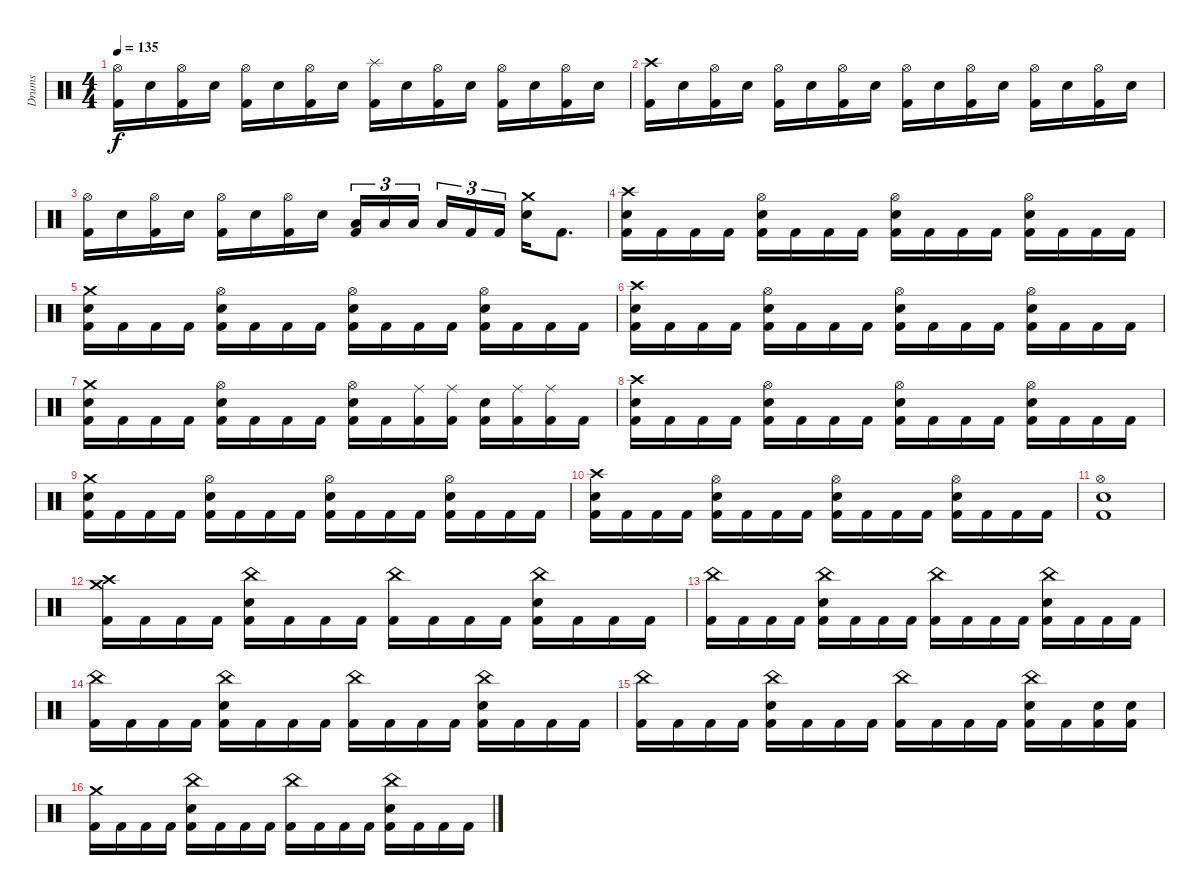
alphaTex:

\track ("Drums" "Drums") {instrument percussion}
\staff {score}
\articulation defaults
\ts (4 4)
\tempo 135
\clef neutral
\ks c
("Hi-Hat (open)" "Kick (hit) 2").16{dy f} "Electric Snare (hit)".16 ("Hi-Hat (open)" "Kick (hit) 2").16 "Electric Snare (hit)".16 ("Hi-Hat (open)" "Kick (hit) 2").16 "Electric Snare (hit)".16 ("Hi-Hat (open)" "Kick (hit) 2").16 "Electric Snare (hit)".16 ("Splash (hit)" "Kick (hit) 2").16 "Electric Snare (hit)".16 ("Hi-Hat (open)" "Kick (hit) 2").16 "Electric Snare (hit)".16 ("Hi-Hat (open)" "Kick (hit) 2").16 "Electric Snare (hit)".16 ("Hi-Hat (open)" "Kick (hit) 2").16 "Electric Snare (hit)".16 |
("Crash high (hit)" "Kick (hit) 2").16 "Electric Snare (hit)".16 ("Hi-Hat (open)" "Kick (hit) 2").16 "Electric Snare (hit)".16 ("Hi-Hat (open)" "Kick (hit) 2").16 "Electric Snare (hit)".16 ("Hi-Hat (open)" "Kick (hit) 2").16 "Electric Snare (hit)".16 ("Hi-Hat (open)" "Kick (hit) 2").16 "Electric Snare (hit)".16 ("Hi-Hat (open)" "Kick (hit) 2").16 "Electric Snare (hit)".16 ("Hi-Hat (open)" "Kick (hit) 2").16 "Electric Snare (hit)".16 ("Hi-Hat (open)" "Kick (hit) 2").16 "Electric Snare (hit)".16 |
("Hi-Hat (open)" "Kick (hit) 2").16 "Electric Snare (hit)".16 ("Hi-Hat (open)" "Kick (hit) 2").16 "Electric Snare (hit)".16 ("Hi-Hat (open)" "Kick (hit) 2").16 "Electric Snare (hit)".16 ("Hi-Hat (open)" "Kick (hit) 2").16 "Electric Snare (hit)".16 ("Low Tom (hit)" "Kick (hit) 2").16{tu (3 2)} "Low Tom (hit)".16{tu (3 2)} "Low Tom (hit)".16{tu (3 2) beam splitsecondary} "Low Tom (hit)".16{tu (3 2)} "Kick (hit) 2".16{tu (3 2)} "Kick (hit) 2".16{tu (3 2)} ("Crash medium (hit)" "Electric Snare (hit)").16 "Kick (hit) 2".8{d} |
("Crash high (hit)" "Electric Snare (hit)" "Kick (hit) 2").16 "Kick (hit) 2".16 "Kick (hit) 2".16 "Kick (hit) 2".16 ("Hi-Hat (open)" "Electric Snare (hit)" "Kick (hit) 2").16 "Kick (hit) 2".16 "Kick (hit) 2".16 "Kick (hit) 2".16 ("Hi-Hat (open)" "Electric Snare (hit)" "Kick (hit) 2").16 "Kick (hit) 2".16 "Kick (hit) 2".16 "Kick (hit) 2".16 ("Hi-Hat (open)" "Electric Snare (hit)" "Kick (hit) 2").16 "Kick (hit) 2".16 "Kick (hit) 2".16 "Kick (hit) 2".16 |
("Crash medium (hit)" "Electric Snare (hit)" "Kick (hit) 2").16 "Kick (hit) 2".16 "Kick (hit) 2".16 "Kick (hit) 2".16 ("Hi-Hat (open)" "Electric Snare (hit)" "Kick (hit) 2").16 "Kick (hit) 2".16 "Kick (hit) 2".16 "Kick (hit) 2".16 ("Hi-Hat (open)" "Electric Snare (hit)" "Kick (hit) 2").16 "Kick (hit) 2".16 "Kick (hit) 2".16 "Kick (hit) 2".16 ("Hi-Hat (open)" "Electric Snare (hit)" "Kick (hit) 2").16 "Kick (hit) 2".16 "Kick (hit) 2".16 "Kick (hit) 2".16 |
("Crash high (hit)" "Electric Snare (hit)" "Kick (hit) 2").16 "Kick (hit) 2".16 "Kick (hit) 2".16 "Kick (hit) 2".16 ("Hi-Hat (open)" "Electric Snare (hit)" "Kick (hit) 2").16 "Kick (hit) 2".16 "Kick (hit) 2".16 "Kick (hit) 2".16 ("Hi-Hat (open)" "Electric Snare (hit)" "Kick (hit) 2").16 "Kick (hit) 2".16 "Kick (hit) 2".16 "Kick (hit) 2".16 ("Hi-Hat (open)" "Electric Snare (hit)" "Kick (hit) 2").16 "Kick (hit) 2".16 "Kick (hit) 2".16 "Kick (hit) 2".16 |
("Crash medium (hit)" "Electric Snare (hit)" "Kick (hit) 2").16 "Kick (hit) 2".16 "Kick (hit) 2".16 "Kick (hit) 2".16 ("Hi-Hat (open)" "Electric Snare (hit)" "Kick (hit) 2").16 "Kick (hit) 2".16 "Kick (hit) 2".16 "Kick (hit) 2".16 ("Hi-Hat (open)" "Electric Snare (hit)" "Kick (hit) 2").16 "Kick (hit) 2".16 ("Ride (middle)" "Kick (hit) 2").16 ("Ride (middle)" "Kick (hit) 2").16 ("Electric Snare (hit)" "Kick (hit) 2").16 ("Ride (middle)" "Kick (hit) 2").16 ("Ride (middle)" "Kick (hit) 2").16 "Kick (hit) 2".16 |
("Crash high (hit)" "Electric Snare (hit)" "Kick (hit) 2").16 "Kick (hit) 2".16 "Kick (hit) 2".16 "Kick (hit) 2".16 ("Hi-Hat (open)" "Electric Snare (hit)" "Kick (hit) 2").16 "Kick (hit) 2".16 "Kick (hit) 2".16 "Kick (hit) 2".16 ("Hi-Hat (open)" "Electric Snare (hit)" "Kick (hit) 2").16 "Kick (hit) 2".16 "Kick (hit) 2".16 "Kick (hit) 2".16 ("Hi-Hat (open)" "Electric Snare (hit)" "Kick (hit) 2").16 "Kick (hit) 2".16 "Kick (hit) 2".16 "Kick (hit) 2".16 |
("Crash medium (hit)" "Electric Snare (hit)" "Kick (hit) 2").16 "Kick (hit) 2".16 "Kick (hit) 2".16 "Kick (hit) 2".16 ("Hi-Hat (open)" "Electric Snare (hit)" "Kick (hit) 2").16 "Kick (hit) 2".16 "Kick (hit) 2".16 "Kick (hit) 2".16 ("Hi-Hat (open)" "Electric Snare (hit)" "Kick (hit) 2").16 "Kick (hit) 2".16 "Kick (hit) 2".16 "Kick (hit) 2".16 ("Hi-Hat (open)" "Electric Snare (hit)" "Kick (hit) 2").16 "Kick (hit) 2".16 "Kick (hit) 2".16 "Kick (hit) 2".16 |
("Crash high (hit)" "Electric Snare (hit)" "Kick (hit) 2").16 "Kick (hit) 2".16 "Kick (hit) 2".16 "Kick (hit) 2".16 ("Hi-Hat (open)" "Electric Snare (hit)" "Kick (hit) 2").16 "Kick (hit) 2".16 "Kick (hit) 2".16 "Kick (hit) 2".16 ("Hi-Hat (open)" "Electric Snare (hit)" "Kick (hit) 2").16 "Kick (hit) 2".16 "Kick (hit) 2".16 "Kick (hit) 2".16 ("Hi-Hat (open)" "Electric Snare (hit)" "Kick (hit) 2").16 "Kick (hit) 2".16 "Kick (hit) 2".16 "Kick (hit) 2".16 |
("Hi-Hat (open)" "Electric Snare (hit)" "Kick (hit) 2").1 |
("Crash high (hit)" "Crash medium (hit)" "Kick (hit) 2").16 "Kick (hit) 2".16 "Kick (hit) 2".16 "Kick (hit) 2".16 ("China (hit)" "Electric Snare (hit)" "Kick (hit) 2").16 "Kick (hit) 2".16 "Kick (hit) 2".16 "Kick (hit) 2".16 ("China (hit)" "Kick (hit) 2").16 "Kick (hit) 2".16 "Kick (hit) 2".16 "Kick (hit) 2".16 ("China (hit)" "Electric Snare (hit)" "Kick (hit) 2").16 "Kick (hit) 2".16 "Kick (hit) 2".16 "Kick (hit) 2".16 |
("China (hit)" "Kick (hit) 2").16 "Kick (hit) 2".16 "Kick (hit) 2".16 "Kick (hit) 2".16 ("China (hit)" "Electric Snare (hit)" "Kick (hit) 2").16 "Kick (hit) 2".16 "Kick (hit) 2".16 "Kick (hit) 2".16 ("China (hit)" "Kick (hit) 2").16 "Kick (hit) 2".16 "Kick (hit) 2".16 "Kick (hit) 2".16 ("China (hit)" "Electric Snare (hit)" "Kick (hit) 2").16 "Kick (hit) 2".16 "Kick (hit) 2".16 "Kick (hit) 2".16 |
("China (hit)" "Kick (hit) 2").16 "Kick (hit) 2".16 "Kick (hit) 2".16 "Kick (hit) 2".16 ("China (hit)" "Electric Snare (hit)" "Kick (hit) 2").16 "Kick (hit) 2".16 "Kick (hit) 2".16 "Kick (hit) 2".16 ("China (hit)" "Kick (hit) 2").16 "Kick (hit) 2".16 "Kick (hit) 2".16 "Kick (hit) 2".16 ("China (hit)" "Electric Snare (hit)" "Kick (hit) 2").16 "Kick (hit) 2".16 "Kick (hit) 2".16 "Kick (hit) 2".16 |
("China (hit)" "Kick (hit) 2").16 "Kick (hit) 2".16 "Kick (hit) 2".16 "Kick (hit) 2".16 ("China (hit)" "Electric Snare (hit)" "Kick (hit) 2").16 "Kick (hit) 2".16 "Kick (hit) 2".16 "Kick (hit) 2".16 ("China (hit)" "Kick (hit) 2").16 "Kick (hit) 2".16 "Kick (hit) 2".16 "Kick (hit) 2".16 ("China (hit)" "Electric Snare (hit)" "Kick (hit) 2").16 "Kick (hit) 2".16 ("Electric Snare (hit)" "Kick (hit) 2").16 ("Electric Snare (hit)" "Kick (hit) 2").16 |
("Crash medium (hit)" "Kick (hit) 2").16 "Kick (hit) 2".16 "Kick (hit) 2".16 "Kick (hit) 2".16 ("China (hit)" "Electric Snare (hit)" "Kick (hit) 2").16 "Kick (hit) 2".16 "Kick (hit) 2".16 "Kick (hit) 2".16 ("China (hit)" "Kick (hit) 2").16 "Kick (hit) 2".16 "Kick (hit) 2".16 "Kick (hit) 2".16 ("China (hit)" "Electric Snare (hit)" "Kick (hit) 2").16 "Kick (hit) 2".16 "Kick (hit) 2".16 "Kick (hit) 2".16
